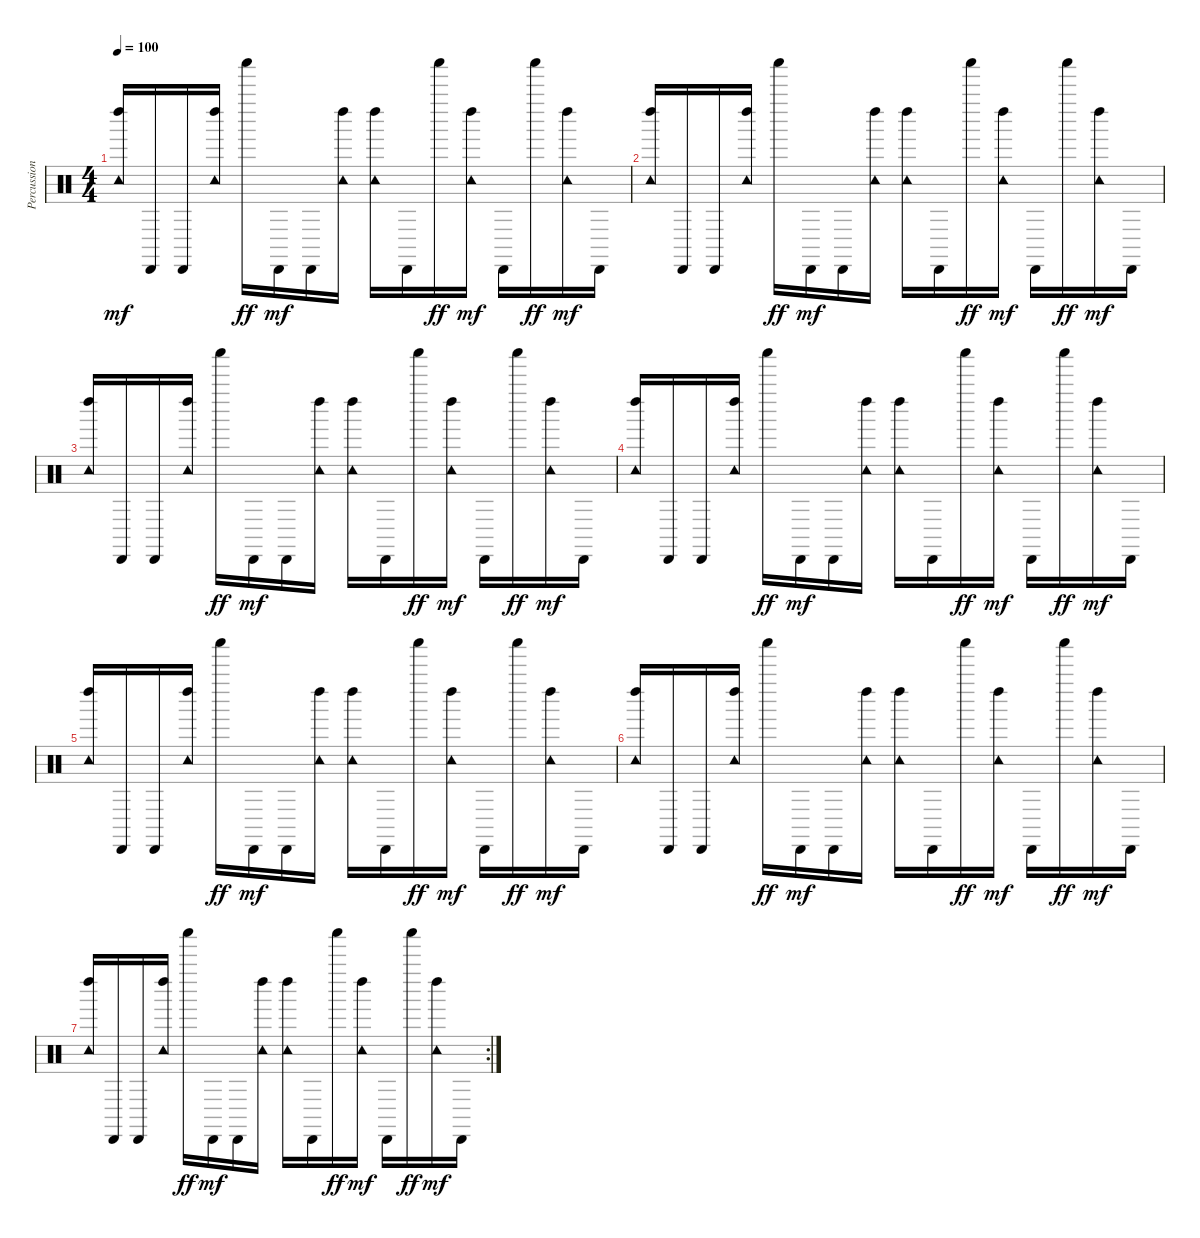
\track ("Percussion" "Percussion") {instrument percussion}
\staff {score}
\articulation defaults
\ts (4 4)
\tempo 100
\clef neutral
\ks c
("Left Maraca (hit)" "Tambourine (hit)").16{dy mf} "Cabasa (hit)".16 "Cabasa (hit)".16 ("Left Maraca (hit)" "Tambourine (hit)").16 "Shaker (hit)".16{dy ff} "Cabasa (hit)".16{dy mf} "Cabasa (hit)".16 ("Left Maraca (hit)" "Tambourine (hit)").16 ("Left Maraca (hit)" "Tambourine (hit)").16 "Cabasa (hit)".16 "Shaker (hit)".16{dy ff} ("Left Maraca (hit)" "Tambourine (hit)").16{dy mf} "Cabasa (hit)".16 "Shaker (hit)".16{dy ff} ("Left Maraca (hit)" "Tambourine (hit)").16{dy mf} "Cabasa (hit)".16 |
("Left Maraca (hit)" "Tambourine (hit)").16 "Cabasa (hit)".16 "Cabasa (hit)".16 ("Left Maraca (hit)" "Tambourine (hit)").16 "Shaker (hit)".16{dy ff} "Cabasa (hit)".16{dy mf} "Cabasa (hit)".16 ("Left Maraca (hit)" "Tambourine (hit)").16 ("Left Maraca (hit)" "Tambourine (hit)").16 "Cabasa (hit)".16 "Shaker (hit)".16{dy ff} ("Left Maraca (hit)" "Tambourine (hit)").16{dy mf} "Cabasa (hit)".16 "Shaker (hit)".16{dy ff} ("Left Maraca (hit)" "Tambourine (hit)").16{dy mf} "Cabasa (hit)".16 |
("Left Maraca (hit)" "Tambourine (hit)").16 "Cabasa (hit)".16 "Cabasa (hit)".16 ("Left Maraca (hit)" "Tambourine (hit)").16 "Shaker (hit)".16{dy ff} "Cabasa (hit)".16{dy mf} "Cabasa (hit)".16 ("Left Maraca (hit)" "Tambourine (hit)").16 ("Left Maraca (hit)" "Tambourine (hit)").16 "Cabasa (hit)".16 "Shaker (hit)".16{dy ff} ("Left Maraca (hit)" "Tambourine (hit)").16{dy mf} "Cabasa (hit)".16 "Shaker (hit)".16{dy ff} ("Left Maraca (hit)" "Tambourine (hit)").16{dy mf} "Cabasa (hit)".16 |
("Left Maraca (hit)" "Tambourine (hit)").16 "Cabasa (hit)".16 "Cabasa (hit)".16 ("Left Maraca (hit)" "Tambourine (hit)").16 "Shaker (hit)".16{dy ff} "Cabasa (hit)".16{dy mf} "Cabasa (hit)".16 ("Left Maraca (hit)" "Tambourine (hit)").16 ("Left Maraca (hit)" "Tambourine (hit)").16 "Cabasa (hit)".16 "Shaker (hit)".16{dy ff} ("Left Maraca (hit)" "Tambourine (hit)").16{dy mf} "Cabasa (hit)".16 "Shaker (hit)".16{dy ff} ("Left Maraca (hit)" "Tambourine (hit)").16{dy mf} "Cabasa (hit)".16 |
("Left Maraca (hit)" "Tambourine (hit)").16 "Cabasa (hit)".16 "Cabasa (hit)".16 ("Left Maraca (hit)" "Tambourine (hit)").16 "Shaker (hit)".16{dy ff} "Cabasa (hit)".16{dy mf} "Cabasa (hit)".16 ("Left Maraca (hit)" "Tambourine (hit)").16 ("Left Maraca (hit)" "Tambourine (hit)").16 "Cabasa (hit)".16 "Shaker (hit)".16{dy ff} ("Left Maraca (hit)" "Tambourine (hit)").16{dy mf} "Cabasa (hit)".16 "Shaker (hit)".16{dy ff} ("Left Maraca (hit)" "Tambourine (hit)").16{dy mf} "Cabasa (hit)".16 |
("Left Maraca (hit)" "Tambourine (hit)").16 "Cabasa (hit)".16 "Cabasa (hit)".16 ("Left Maraca (hit)" "Tambourine (hit)").16 "Shaker (hit)".16{dy ff} "Cabasa (hit)".16{dy mf} "Cabasa (hit)".16 ("Left Maraca (hit)" "Tambourine (hit)").16 ("Left Maraca (hit)" "Tambourine (hit)").16 "Cabasa (hit)".16 "Shaker (hit)".16{dy ff} ("Left Maraca (hit)" "Tambourine (hit)").16{dy mf} "Cabasa (hit)".16 "Shaker (hit)".16{dy ff} ("Left Maraca (hit)" "Tambourine (hit)").16{dy mf} "Cabasa (hit)".16 |
\rc 2
("Left Maraca (hit)" "Tambourine (hit)").16 "Cabasa (hit)".16 "Cabasa (hit)".16 ("Left Maraca (hit)" "Tambourine (hit)").16 "Shaker (hit)".16{dy ff} "Cabasa (hit)".16{dy mf} "Cabasa (hit)".16 ("Left Maraca (hit)" "Tambourine (hit)").16 ("Left Maraca (hit)" "Tambourine (hit)").16 "Cabasa (hit)".16 "Shaker (hit)".16{dy ff} ("Left Maraca (hit)" "Tambourine (hit)").16{dy mf} "Cabasa (hit)".16 "Shaker (hit)".16{dy ff} ("Left Maraca (hit)" "Tambourine (hit)").16{dy mf} "Cabasa (hit)".16
